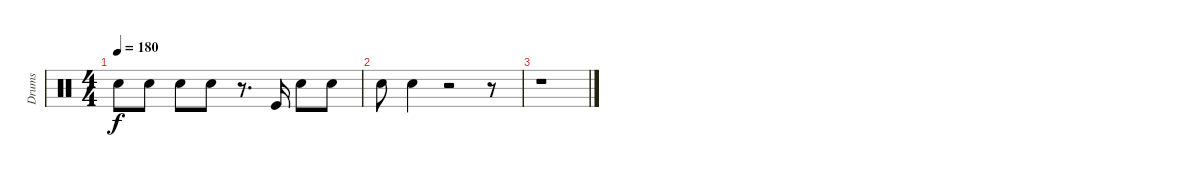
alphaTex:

\track ("Drums" "Drums") {instrument percussion}
\staff {score}
\articulation defaults
\ts (4 4)
\tempo 180
\clef neutral
\ks c "Snare (hit) 2".8{dy f} "Snare (hit) 2".8 "Snare (hit) 2".8 "Snare (hit) 2".8
r.8{d} "Kick (hit)".16 "Snare (hit) 2".8 "Snare (hit) 2".8 |
"Snare (hit) 2".8 "Snare (hit) 2".4 r.2 r.8 |
r.1
